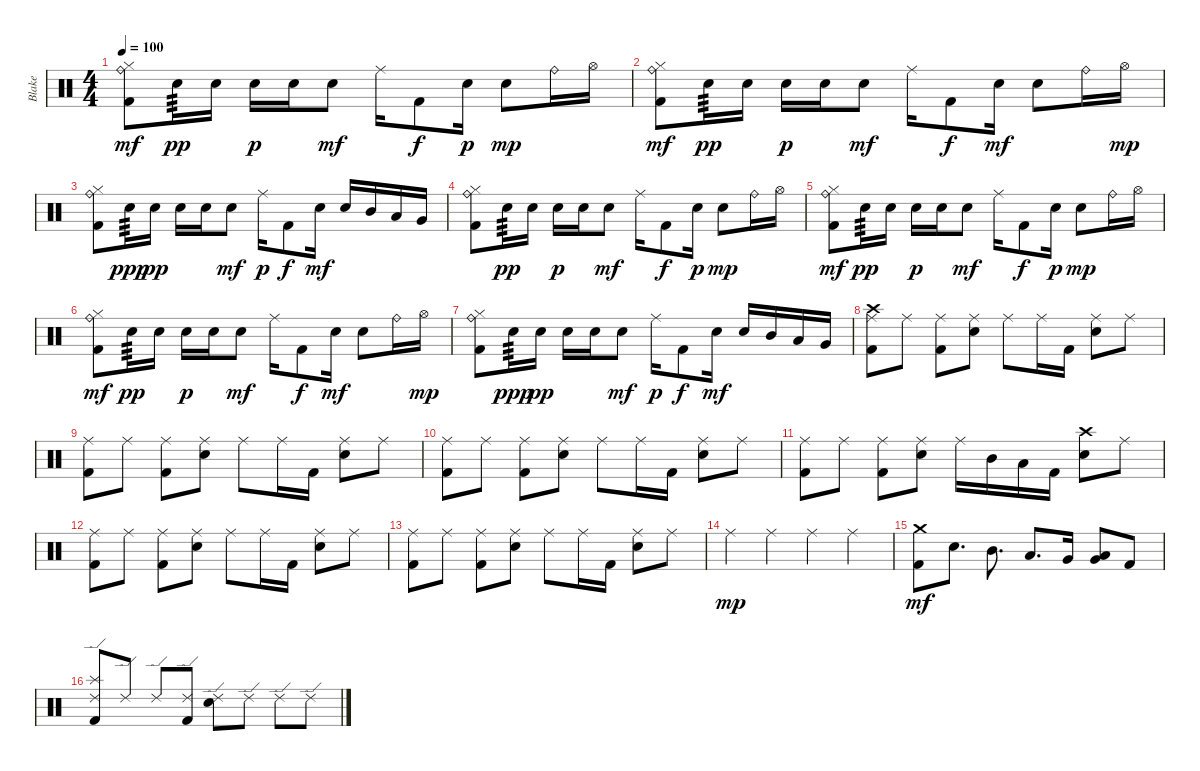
\track ("Blake" "Blake") {instrument percussion}
\staff {score}
\articulation defaults
\ts (4 4)
\tempo 100
\clef neutral
\ks c
("Ride (bell)" "Hi-Hat (closed)" "Kick (hit) 2").8{dy mf} "Snare (hit) 2".16{tp 3 dy pp} "Snare (hit) 2".16 "Snare (hit) 2".16{dy p} "Snare (hit) 2".16 "Snare (hit) 2".8{dy mf} "Ride (middle)".16 "Kick (hit) 2".8{dy f} "Snare (hit) 2".16{dy p} "Snare (hit) 2".8{dy mp} "Ride (bell)".16 "Hi-Hat (open)".16 |
("Ride (bell)" "Hi-Hat (closed)" "Kick (hit) 2").8{dy mf} "Snare (hit) 2".16{tp 3 dy pp} "Snare (hit) 2".16 "Snare (hit) 2".16{dy p} "Snare (hit) 2".16 "Snare (hit) 2".8{dy mf} "Ride (middle)".16 "Kick (hit) 2".8{dy f} "Snare (hit) 2".16{dy mf} "Snare (hit) 2".8 "Ride (bell)".16 "Hi-Hat (open)".16{dy mp} |
("Ride (bell)" "Hi-Hat (closed)" "Kick (hit) 2").8 "Snare (hit) 2".16{tp 3 dy ppp} "Snare (hit) 2".16{dy pp} "Snare (hit) 2".16 "Snare (hit) 2".16 "Snare (hit) 2".8{dy mf} "Ride (middle)".16{dy p} "Kick (hit) 2".8{dy f} "Snare (hit) 2".16{dy mf} "Snare (hit) 2".16 "Mid Tom (hit)".16 "Low Tom (hit)".16 "Very Low Tom (hit)".16 |
("Ride (bell)" "Hi-Hat (closed)" "Kick (hit) 2").8 "Snare (hit) 2".16{tp 3 dy pp} "Snare (hit) 2".16 "Snare (hit) 2".16{dy p} "Snare (hit) 2".16 "Snare (hit) 2".8{dy mf} "Ride (middle)".16 "Kick (hit) 2".8{dy f} "Snare (hit) 2".16{dy p} "Snare (hit) 2".8{dy mp} "Ride (bell)".16 "Hi-Hat (open)".16 |
("Ride (bell)" "Hi-Hat (closed)" "Kick (hit) 2").8{dy mf} "Snare (hit) 2".16{tp 3 dy pp} "Snare (hit) 2".16 "Snare (hit) 2".16{dy p} "Snare (hit) 2".16 "Snare (hit) 2".8{dy mf} "Ride (middle)".16 "Kick (hit) 2".8{dy f} "Snare (hit) 2".16{dy p} "Snare (hit) 2".8{dy mp} "Ride (bell)".16 "Hi-Hat (open)".16 |
("Ride (bell)" "Hi-Hat (closed)" "Kick (hit) 2").8{dy mf} "Snare (hit) 2".16{tp 3 dy pp} "Snare (hit) 2".16 "Snare (hit) 2".16{dy p} "Snare (hit) 2".16 "Snare (hit) 2".8{dy mf} "Ride (middle)".16 "Kick (hit) 2".8{dy f} "Snare (hit) 2".16{dy mf} "Snare (hit) 2".8 "Ride (bell)".16 "Hi-Hat (open)".16{dy mp} |
("Ride (bell)" "Hi-Hat (closed)" "Kick (hit) 2").8 "Snare (hit) 2".16{tp 3 dy ppp} "Snare (hit) 2".16{dy pp} "Snare (hit) 2".16 "Snare (hit) 2".16 "Snare (hit) 2".8{dy mf} "Ride (middle)".16{dy p} "Kick (hit) 2".8{dy f} "Snare (hit) 2".16{dy mf} "Snare (hit) 2".16 "Mid Tom (hit)".16 "Low Tom (hit)".16 "Very Low Tom (hit)".16 |
("Ride (middle)" "Crash high (hit)" "Kick (hit) 2").8 "Ride (middle)".8 ("Ride (middle)" "Kick (hit) 2").8 ("Ride (middle)" "Snare (hit) 2").8 "Ride (middle)".8 "Ride (middle)".16 "Kick (hit) 2".16 ("Ride (middle)" "Snare (hit) 2").8 "Ride (middle)".8 |
("Ride (middle)" "Kick (hit) 2").8 "Ride (middle)".8 ("Ride (middle)" "Kick (hit) 2").8 ("Ride (middle)" "Snare (hit) 2").8 "Ride (middle)".8 "Ride (middle)".16 "Kick (hit) 2".16 ("Ride (middle)" "Snare (hit) 2").8 "Ride (middle)".8 |
("Ride (middle)" "Kick (hit) 2").8 "Ride (middle)".8 ("Ride (middle)" "Kick (hit) 2").8 ("Ride (middle)" "Snare (hit) 2").8 "Ride (middle)".8 "Ride (middle)".16 "Kick (hit) 2".16 ("Ride (middle)" "Snare (hit) 2").8 "Ride (middle)".8 |
("Ride (middle)" "Kick (hit) 2").8 "Ride (middle)".8 ("Ride (middle)" "Kick (hit) 2").8 ("Ride (middle)" "Snare (hit) 2").8 "Ride (middle)".16 "Mid Tom (hit)".16 "Low Tom (hit)".16 "Kick (hit) 2".16 ("Crash high (hit)" "Snare (hit) 2").8 "Ride (middle)".8 |
("Ride (middle)" "Kick (hit) 2").8 "Ride (middle)".8 ("Ride (middle)" "Kick (hit) 2").8 ("Ride (middle)" "Snare (hit) 2").8 "Ride (middle)".8 "Ride (middle)".16 "Kick (hit) 2".16 ("Ride (middle)" "Snare (hit) 2").8 "Ride (middle)".8 |
("Ride (middle)" "Kick (hit) 2").8 "Ride (middle)".8 ("Ride (middle)" "Kick (hit) 2").8 ("Ride (middle)" "Snare (hit) 2").8 "Ride (middle)".8 "Ride (middle)".16 "Kick (hit) 2".16 ("Ride (middle)" "Snare (hit) 2").8 "Ride (middle)".8 |
"Ride (middle)".4{dy mp} "Ride (middle)".4 "Ride (middle)".4 "Ride (middle)".4 |
("Crash medium (hit)" "Kick (hit) 2").8{dy mf} "Snare (hit) 2".8{d} "Mid Tom (hit)".8{d} "Low Tom (hit)".8{d} "Very Low Tom (hit)".16 ("Low Tom (hit)" "Very Low Tom (hit)").8 "Kick (hit) 2".8 |
("Splash (hit)" "Ride (edge) 2" "Kick (hit) 2").8 "Ride (edge) 2".8 "Ride (edge) 2".8 ("Ride (edge) 2" "Kick (hit) 2").8 ("Ride (edge) 2" "Snare (hit) 2").8 "Ride (edge) 2".8 "Ride (edge) 2".8 "Ride (edge) 2".8
